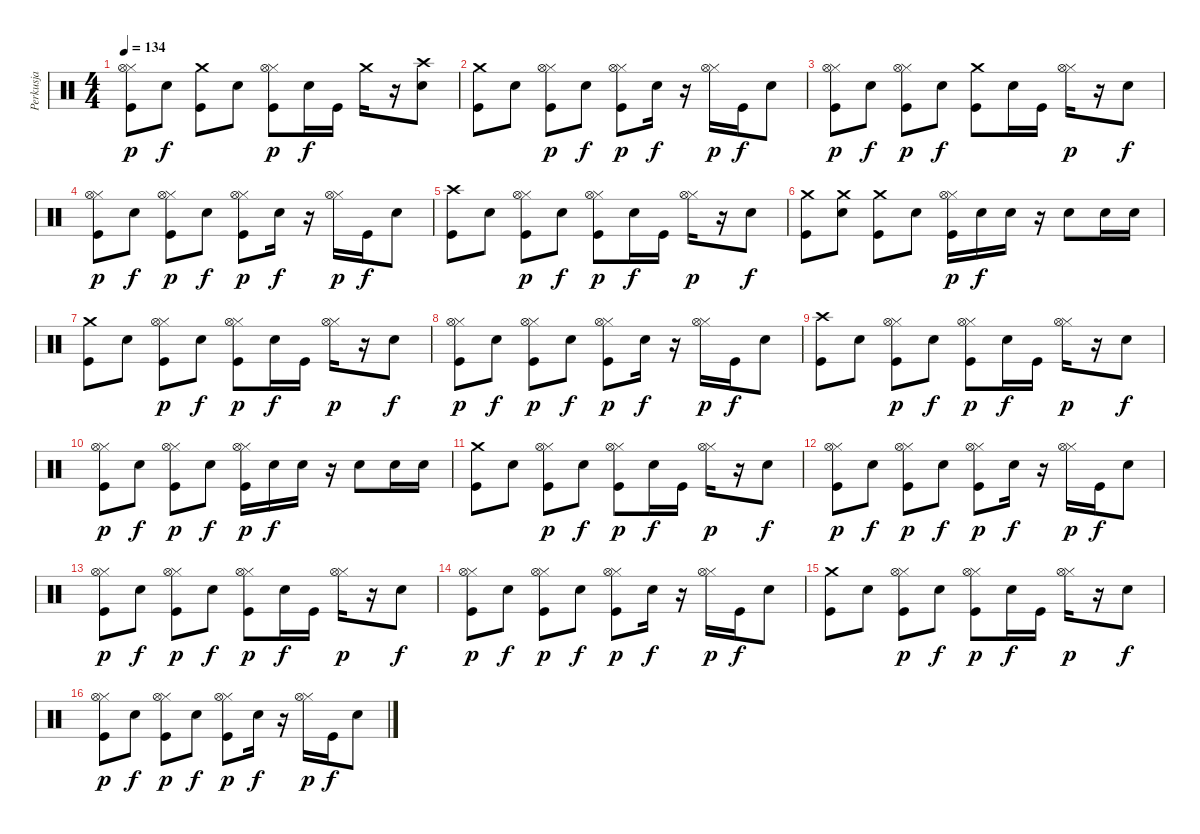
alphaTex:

\track ("Perkusja" "Perkusja") {instrument percussion}
\staff {score}
\articulation defaults
\ts (4 4)
\tempo 134
\clef neutral
\ks c
("Hi-Hat (closed)" "Hi-Hat (open)" "Kick (hit)").8{dy p} "Electric Snare (hit)".8{dy f} ("Crash medium (hit)" "Kick (hit)").8 "Electric Snare (hit)".8 ("Hi-Hat (closed)" "Hi-Hat (open)" "Kick (hit)").8{dy p} "Electric Snare (hit)".16{dy f} "Kick (hit)".16 "Crash medium (hit)".16 r.16 ("Crash high (hit)" "Electric Snare (hit)").8 |
("Crash medium (hit)" "Kick (hit)").8 "Electric Snare (hit)".8 ("Hi-Hat (closed)" "Hi-Hat (open)" "Kick (hit)").8{dy p} "Electric Snare (hit)".8{dy f} ("Hi-Hat (closed)" "Hi-Hat (open)" "Kick (hit)").8{dy p} "Electric Snare (hit)".16{dy f} r.16 ("Hi-Hat (closed)" "Hi-Hat (open)").16{dy p} "Kick (hit)".16{dy f} "Electric Snare (hit)".8 |
("Hi-Hat (closed)" "Hi-Hat (open)" "Kick (hit)").8{dy p} "Electric Snare (hit)".8{dy f} ("Hi-Hat (closed)" "Hi-Hat (open)" "Kick (hit)").8{dy p} "Electric Snare (hit)".8{dy f} ("Crash medium (hit)" "Kick (hit)").8 "Electric Snare (hit)".16 "Kick (hit)".16 ("Hi-Hat (closed)" "Hi-Hat (open)").16{dy p} r.16 "Electric Snare (hit)".8{dy f} |
("Hi-Hat (closed)" "Hi-Hat (open)" "Kick (hit)").8{dy p} "Electric Snare (hit)".8{dy f} ("Hi-Hat (closed)" "Hi-Hat (open)" "Kick (hit)").8{dy p} "Electric Snare (hit)".8{dy f} ("Hi-Hat (closed)" "Hi-Hat (open)" "Kick (hit)").8{dy p} "Electric Snare (hit)".16{dy f} r.16 ("Hi-Hat (closed)" "Hi-Hat (open)").16{dy p} "Kick (hit)".16{dy f} "Electric Snare (hit)".8 |
("Crash high (hit)" "Kick (hit)").8 "Electric Snare (hit)".8 ("Hi-Hat (closed)" "Hi-Hat (open)" "Kick (hit)").8{dy p} "Electric Snare (hit)".8{dy f} ("Hi-Hat (closed)" "Hi-Hat (open)" "Kick (hit)").8{dy p} "Electric Snare (hit)".16{dy f} "Kick (hit)".16 ("Hi-Hat (closed)" "Hi-Hat (open)").16{dy p} r.16 "Electric Snare (hit)".8{dy f} |
("Crash medium (hit)" "Kick (hit)").8 ("Crash medium (hit)" "Electric Snare (hit)").8 ("Crash medium (hit)" "Kick (hit)").8 "Electric Snare (hit)".8 ("Hi-Hat (closed)" "Hi-Hat (open)" "Kick (hit)").16{dy p} "Electric Snare (hit)".16{dy f} "Electric Snare (hit)".16 r.16 "Electric Snare (hit)".8 "Electric Snare (hit)".16 "Electric Snare (hit)".16 |
("Crash medium (hit)" "Kick (hit)").8 "Electric Snare (hit)".8 ("Hi-Hat (closed)" "Hi-Hat (open)" "Kick (hit)").8{dy p} "Electric Snare (hit)".8{dy f} ("Hi-Hat (closed)" "Hi-Hat (open)" "Kick (hit)").8{dy p} "Electric Snare (hit)".16{dy f} "Kick (hit)".16 ("Hi-Hat (closed)" "Hi-Hat (open)").16{dy p} r.16 "Electric Snare (hit)".8{dy f} |
("Hi-Hat (closed)" "Hi-Hat (open)" "Kick (hit)").8{dy p} "Electric Snare (hit)".8{dy f} ("Hi-Hat (closed)" "Hi-Hat (open)" "Kick (hit)").8{dy p} "Electric Snare (hit)".8{dy f} ("Hi-Hat (closed)" "Hi-Hat (open)" "Kick (hit)").8{dy p} "Electric Snare (hit)".16{dy f} r.16 ("Hi-Hat (closed)" "Hi-Hat (open)").16{dy p} "Kick (hit)".16{dy f} "Electric Snare (hit)".8 |
("Crash high (hit)" "Kick (hit)").8 "Electric Snare (hit)".8 ("Hi-Hat (closed)" "Hi-Hat (open)" "Kick (hit)").8{dy p} "Electric Snare (hit)".8{dy f} ("Hi-Hat (closed)" "Hi-Hat (open)" "Kick (hit)").8{dy p} "Electric Snare (hit)".16{dy f} "Kick (hit)".16 ("Hi-Hat (closed)" "Hi-Hat (open)").16{dy p} r.16 "Electric Snare (hit)".8{dy f} |
("Hi-Hat (closed)" "Hi-Hat (open)" "Kick (hit)").8{dy p} "Electric Snare (hit)".8{dy f} ("Hi-Hat (closed)" "Hi-Hat (open)" "Kick (hit)").8{dy p} "Electric Snare (hit)".8{dy f} ("Hi-Hat (closed)" "Hi-Hat (open)" "Kick (hit)").16{dy p} "Electric Snare (hit)".16{dy f} "Electric Snare (hit)".16 r.16 "Electric Snare (hit)".8 "Electric Snare (hit)".16 "Electric Snare (hit)".16 |
("Crash medium (hit)" "Kick (hit)").8 "Electric Snare (hit)".8 ("Hi-Hat (closed)" "Hi-Hat (open)" "Kick (hit)").8{dy p} "Electric Snare (hit)".8{dy f} ("Hi-Hat (closed)" "Hi-Hat (open)" "Kick (hit)").8{dy p} "Electric Snare (hit)".16{dy f} "Kick (hit)".16 ("Hi-Hat (closed)" "Hi-Hat (open)").16{dy p} r.16 "Electric Snare (hit)".8{dy f} |
("Hi-Hat (closed)" "Hi-Hat (open)" "Kick (hit)").8{dy p} "Electric Snare (hit)".8{dy f} ("Hi-Hat (closed)" "Hi-Hat (open)" "Kick (hit)").8{dy p} "Electric Snare (hit)".8{dy f} ("Hi-Hat (closed)" "Hi-Hat (open)" "Kick (hit)").8{dy p} "Electric Snare (hit)".16{dy f} r.16 ("Hi-Hat (closed)" "Hi-Hat (open)").16{dy p} "Kick (hit)".16{dy f} "Electric Snare (hit)".8 |
("Hi-Hat (closed)" "Hi-Hat (open)" "Kick (hit)").8{dy p} "Electric Snare (hit)".8{dy f} ("Hi-Hat (closed)" "Hi-Hat (open)" "Kick (hit)").8{dy p} "Electric Snare (hit)".8{dy f} ("Hi-Hat (closed)" "Hi-Hat (open)" "Kick (hit)").8{dy p} "Electric Snare (hit)".16{dy f} "Kick (hit)".16 ("Hi-Hat (closed)" "Hi-Hat (open)").16{dy p} r.16 "Electric Snare (hit)".8{dy f} |
("Hi-Hat (closed)" "Hi-Hat (open)" "Kick (hit)").8{dy p} "Electric Snare (hit)".8{dy f} ("Hi-Hat (closed)" "Hi-Hat (open)" "Kick (hit)").8{dy p} "Electric Snare (hit)".8{dy f} ("Hi-Hat (closed)" "Hi-Hat (open)" "Kick (hit)").8{dy p} "Electric Snare (hit)".16{dy f} r.16 ("Hi-Hat (closed)" "Hi-Hat (open)").16{dy p} "Kick (hit)".16{dy f} "Electric Snare (hit)".8 |
("Crash medium (hit)" "Kick (hit)").8 "Electric Snare (hit)".8 ("Hi-Hat (closed)" "Hi-Hat (open)" "Kick (hit)").8{dy p} "Electric Snare (hit)".8{dy f} ("Hi-Hat (closed)" "Hi-Hat (open)" "Kick (hit)").8{dy p} "Electric Snare (hit)".16{dy f} "Kick (hit)".16 ("Hi-Hat (closed)" "Hi-Hat (open)").16{dy p} r.16 "Electric Snare (hit)".8{dy f} |
("Hi-Hat (closed)" "Hi-Hat (open)" "Kick (hit)").8{dy p} "Electric Snare (hit)".8{dy f} ("Hi-Hat (closed)" "Hi-Hat (open)" "Kick (hit)").8{dy p} "Electric Snare (hit)".8{dy f} ("Hi-Hat (closed)" "Hi-Hat (open)" "Kick (hit)").8{dy p} "Electric Snare (hit)".16{dy f} r.16 ("Hi-Hat (closed)" "Hi-Hat (open)").16{dy p} "Kick (hit)".16{dy f} "Electric Snare (hit)".8
